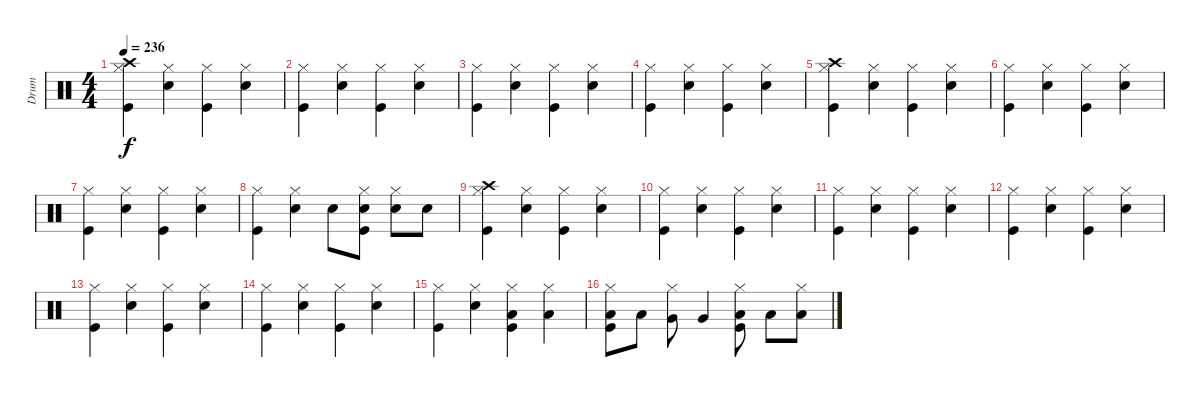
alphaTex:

\track ("Drum" "Drum") {instrument percussion}
\staff {score}
\articulation defaults
\ts (4 4)
\tempo 236
\clef neutral
\ks c
("Crash high (hit)" "Hi-Hat (closed)" "Kick (hit)").4{dy f} ("Hi-Hat (closed)" "Snare (hit) 2").4 ("Hi-Hat (closed)" "Kick (hit)").4 ("Hi-Hat (closed)" "Snare (hit) 2").4 |
("Hi-Hat (closed)" "Kick (hit)").4 ("Hi-Hat (closed)" "Snare (hit) 2").4 ("Hi-Hat (closed)" "Kick (hit)").4 ("Hi-Hat (closed)" "Snare (hit) 2").4 |
("Hi-Hat (closed)" "Kick (hit)").4 ("Hi-Hat (closed)" "Snare (hit) 2").4 ("Hi-Hat (closed)" "Kick (hit)").4 ("Hi-Hat (closed)" "Snare (hit) 2").4 |
("Hi-Hat (closed)" "Kick (hit)").4 ("Hi-Hat (closed)" "Snare (hit) 2").4 ("Hi-Hat (closed)" "Kick (hit)").4 ("Hi-Hat (closed)" "Snare (hit) 2").4 |
("Crash high (hit)" "Hi-Hat (closed)" "Kick (hit)").4 ("Hi-Hat (closed)" "Snare (hit) 2").4 ("Hi-Hat (closed)" "Kick (hit)").4 ("Hi-Hat (closed)" "Snare (hit) 2").4 |
("Hi-Hat (closed)" "Kick (hit)").4 ("Hi-Hat (closed)" "Snare (hit) 2").4 ("Hi-Hat (closed)" "Kick (hit)").4 ("Hi-Hat (closed)" "Snare (hit) 2").4 |
("Hi-Hat (closed)" "Kick (hit)").4 ("Hi-Hat (closed)" "Snare (hit) 2").4 ("Hi-Hat (closed)" "Kick (hit)").4 ("Hi-Hat (closed)" "Snare (hit) 2").4 |
("Hi-Hat (closed)" "Kick (hit)").4 ("Hi-Hat (closed)" "Snare (hit) 2").4 "Snare (hit) 2".8 ("Hi-Hat (closed)" "Snare (hit) 2" "Kick (hit)").8 ("Hi-Hat (closed)" "Snare (hit) 2").8 "Snare (hit) 2".8 |
("Crash high (hit)" "Hi-Hat (closed)" "Kick (hit)").4 ("Hi-Hat (closed)" "Snare (hit) 2").4 ("Hi-Hat (closed)" "Kick (hit)").4 ("Hi-Hat (closed)" "Snare (hit) 2").4 |
("Hi-Hat (closed)" "Kick (hit)").4 ("Hi-Hat (closed)" "Snare (hit) 2").4 ("Hi-Hat (closed)" "Kick (hit)").4 ("Hi-Hat (closed)" "Snare (hit) 2").4 |
("Hi-Hat (closed)" "Kick (hit)").4 ("Hi-Hat (closed)" "Snare (hit) 2").4 ("Hi-Hat (closed)" "Kick (hit)").4 ("Hi-Hat (closed)" "Snare (hit) 2").4 |
("Hi-Hat (closed)" "Kick (hit)").4 ("Hi-Hat (closed)" "Snare (hit) 2").4 ("Hi-Hat (closed)" "Kick (hit)").4 ("Hi-Hat (closed)" "Snare (hit) 2").4 |
("Hi-Hat (closed)" "Kick (hit)").4 ("Hi-Hat (closed)" "Snare (hit) 2").4 ("Hi-Hat (closed)" "Kick (hit)").4 ("Hi-Hat (closed)" "Snare (hit) 2").4 |
("Hi-Hat (closed)" "Kick (hit)").4 ("Hi-Hat (closed)" "Snare (hit) 2").4 ("Hi-Hat (closed)" "Kick (hit)").4 ("Hi-Hat (closed)" "Snare (hit) 2").4 |
("Hi-Hat (closed)" "Kick (hit)").4 ("Hi-Hat (closed)" "Snare (hit) 2").4 ("Hi-Hat (closed)" "Low Tom (hit)" "Kick (hit)").4 ("Hi-Hat (closed)" "Low Tom (hit)").4 |
("Hi-Hat (closed)" "Low Tom (hit)" "Kick (hit)").8 "Low Tom (hit)".8 ("Hi-Hat (closed)" "Very Low Tom (hit)").8 "Very Low Tom (hit)".4 ("Hi-Hat (closed)" "Low Floor Tom (hit)" "Kick (hit)").8 "Low Floor Tom (hit)".8 ("Hi-Hat (closed)" "Low Floor Tom (hit)").8
